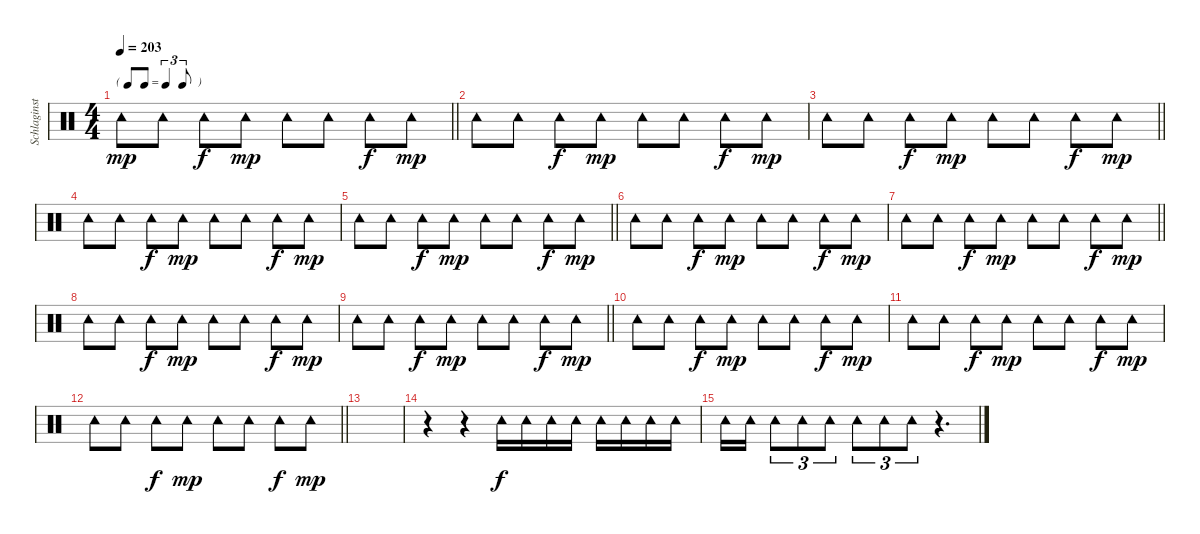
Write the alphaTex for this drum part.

\track ("Schlaginstrumente - Auswahl" "Schlaginst") {instrument percussion}
\staff {score}
\articulation defaults
\ts (4 4)
\tf triplet8th
\tempo 203
\clef neutral
\barLineRight lightlight
\ks c "Tambourine (hit)".8{dy mp} "Tambourine (hit)".8 "Tambourine (hit)".8{dy f} "Tambourine (hit)".8{dy mp} "Tambourine (hit)".8 "Tambourine (hit)".8 "Tambourine (hit)".8{dy f} "Tambourine (hit)".8{dy mp}
|
"Tambourine (hit)".8 "Tambourine (hit)".8 "Tambourine (hit)".8{dy f} "Tambourine (hit)".8{dy mp} "Tambourine (hit)".8 "Tambourine (hit)".8 "Tambourine (hit)".8{dy f} "Tambourine (hit)".8{dy mp} |
\barLineRight lightlight "Tambourine (hit)".8 "Tambourine (hit)".8 "Tambourine (hit)".8{dy f} "Tambourine (hit)".8{dy mp} "Tambourine (hit)".8 "Tambourine (hit)".8 "Tambourine (hit)".8{dy f} "Tambourine (hit)".8{dy mp}
|
"Tambourine (hit)".8 "Tambourine (hit)".8 "Tambourine (hit)".8{dy f} "Tambourine (hit)".8{dy mp} "Tambourine (hit)".8 "Tambourine (hit)".8 "Tambourine (hit)".8{dy f} "Tambourine (hit)".8{dy mp} |
\barLineRight lightlight "Tambourine (hit)".8 "Tambourine (hit)".8 "Tambourine (hit)".8{dy f} "Tambourine (hit)".8{dy mp} "Tambourine (hit)".8 "Tambourine (hit)".8 "Tambourine (hit)".8{dy f} "Tambourine (hit)".8{dy mp}
|
"Tambourine (hit)".8 "Tambourine (hit)".8 "Tambourine (hit)".8{dy f} "Tambourine (hit)".8{dy mp} "Tambourine (hit)".8 "Tambourine (hit)".8 "Tambourine (hit)".8{dy f} "Tambourine (hit)".8{dy mp} |
\barLineRight lightlight "Tambourine (hit)".8 "Tambourine (hit)".8 "Tambourine (hit)".8{dy f} "Tambourine (hit)".8{dy mp} "Tambourine (hit)".8 "Tambourine (hit)".8 "Tambourine (hit)".8{dy f} "Tambourine (hit)".8{dy mp}
|
"Tambourine (hit)".8 "Tambourine (hit)".8 "Tambourine (hit)".8{dy f} "Tambourine (hit)".8{dy mp} "Tambourine (hit)".8 "Tambourine (hit)".8 "Tambourine (hit)".8{dy f} "Tambourine (hit)".8{dy mp} |
\barLineRight lightlight "Tambourine (hit)".8 "Tambourine (hit)".8 "Tambourine (hit)".8{dy f} "Tambourine (hit)".8{dy mp} "Tambourine (hit)".8 "Tambourine (hit)".8 "Tambourine (hit)".8{dy f} "Tambourine (hit)".8{dy mp}
|
"Tambourine (hit)".8 "Tambourine (hit)".8 "Tambourine (hit)".8{dy f} "Tambourine (hit)".8{dy mp} "Tambourine (hit)".8 "Tambourine (hit)".8 "Tambourine (hit)".8{dy f} "Tambourine (hit)".8{dy mp} |
"Tambourine (hit)".8 "Tambourine (hit)".8 "Tambourine (hit)".8{dy f} "Tambourine (hit)".8{dy mp} "Tambourine (hit)".8 "Tambourine (hit)".8 "Tambourine (hit)".8{dy f} "Tambourine (hit)".8{dy mp} |
\barLineRight lightlight "Tambourine (hit)".8 "Tambourine (hit)".8 "Tambourine (hit)".8{dy f} "Tambourine (hit)".8{dy mp} "Tambourine (hit)".8 "Tambourine (hit)".8 "Tambourine (hit)".8{dy f} "Tambourine (hit)".8{dy mp}
|
|
r.4 r.4 "Tambourine (hit)".16{dy f} "Tambourine (hit)".16 "Tambourine (hit)".16 "Tambourine (hit)".16 "Tambourine (hit)".16 "Tambourine (hit)".16 "Tambourine (hit)".16 "Tambourine (hit)".16 |
"Tambourine (hit)".16 "Tambourine (hit)".16 "Tambourine (hit)".8{tu (3 2)} "Tambourine (hit)".8{tu (3 2)} "Tambourine (hit)".8{tu (3 2)} "Tambourine (hit)".8{tu (3 2)} "Tambourine (hit)".8{tu (3 2)} "Tambourine (hit)".8{tu (3 2)} r.4{d}
